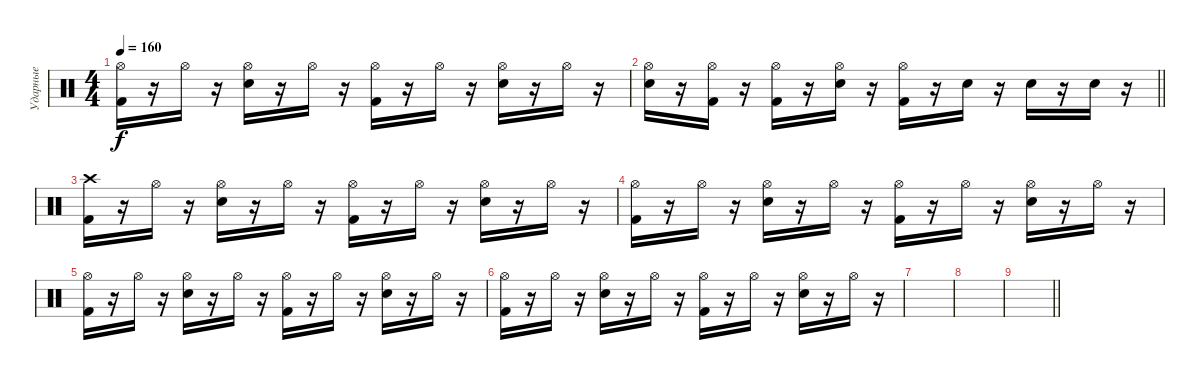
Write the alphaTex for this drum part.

\track ("Ударные" "Ударные") {instrument percussion}
\staff {score}
\articulation defaults
\ts (4 4)
\tempo 160
\clef neutral
\ks c
("Hi-Hat (open)" "Kick (hit) 2").16{dy f} r.16 "Hi-Hat (open)".16 r.16 ("Hi-Hat (open)" "Electric Snare (hit)").16 r.16 "Hi-Hat (open)".16 r.16 ("Hi-Hat (open)" "Kick (hit) 2").16 r.16 "Hi-Hat (open)".16 r.16 ("Hi-Hat (open)" "Electric Snare (hit)").16 r.16 "Hi-Hat (open)".16 r.16 |
\barLineRight lightlight
("Hi-Hat (open)" "Electric Snare (hit)").16 r.16 ("Hi-Hat (open)" "Kick (hit) 2").16 r.16 ("Hi-Hat (open)" "Kick (hit) 2").16 r.16 ("Hi-Hat (open)" "Electric Snare (hit)").16 r.16 ("Hi-Hat (open)" "Kick (hit) 2").16 r.16 "Electric Snare (hit)".16 r.16 "Electric Snare (hit)".16 r.16 "Electric Snare (hit)".16 r.16 |
("Crash high (hit)" "Kick (hit) 2").16 r.16 "Hi-Hat (open)".16 r.16 ("Hi-Hat (open)" "Electric Snare (hit)").16 r.16 "Hi-Hat (open)".16 r.16 ("Hi-Hat (open)" "Kick (hit) 2").16 r.16 "Hi-Hat (open)".16 r.16 ("Hi-Hat (open)" "Electric Snare (hit)").16 r.16 "Hi-Hat (open)".16 r.16 |
("Hi-Hat (open)" "Kick (hit) 2").16 r.16 "Hi-Hat (open)".16 r.16 ("Hi-Hat (open)" "Electric Snare (hit)").16 r.16 "Hi-Hat (open)".16 r.16 ("Hi-Hat (open)" "Kick (hit) 2").16 r.16 "Hi-Hat (open)".16 r.16 ("Hi-Hat (open)" "Electric Snare (hit)").16 r.16 "Hi-Hat (open)".16 r.16 |
("Hi-Hat (open)" "Kick (hit) 2").16 r.16 "Hi-Hat (open)".16 r.16 ("Hi-Hat (open)" "Electric Snare (hit)").16 r.16 "Hi-Hat (open)".16 r.16 ("Hi-Hat (open)" "Kick (hit) 2").16 r.16 "Hi-Hat (open)".16 r.16 ("Hi-Hat (open)" "Electric Snare (hit)").16 r.16 "Hi-Hat (open)".16 r.16 |
("Hi-Hat (open)" "Kick (hit) 2").16 r.16 "Hi-Hat (open)".16 r.16 ("Hi-Hat (open)" "Electric Snare (hit)").16 r.16 "Hi-Hat (open)".16 r.16 ("Hi-Hat (open)" "Kick (hit) 2").16 r.16 "Hi-Hat (open)".16 r.16 ("Hi-Hat (open)" "Electric Snare (hit)").16 r.16 "Hi-Hat (open)".16 r.16 |
|
|
\barLineRight lightlight
